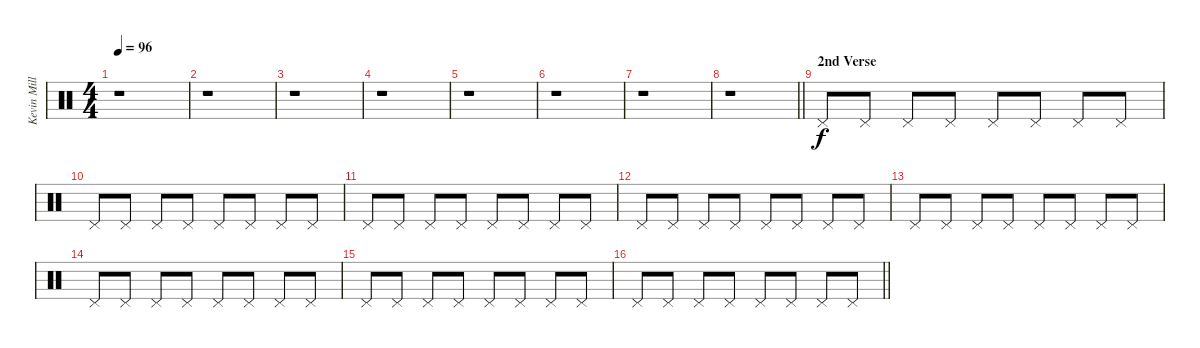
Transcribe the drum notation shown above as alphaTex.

\track ("Kevin Miller (Drums)" "Kevin Mill") {instrument percussion}
\staff {score}
\articulation defaults
\ts (4 4)
\tempo 96
\clef neutral
\ks c
r.1{dy f} |
r.1 |
r.1 |
r.1 |
r.1 |
r.1 |
r.1 |
\barLineRight lightlight
r.1 |
\section ("" "2nd Verse")
"Pedal Hi-Hat (hit)".8 "Pedal Hi-Hat (hit)".8 "Pedal Hi-Hat (hit)".8 "Pedal Hi-Hat (hit)".8 "Pedal Hi-Hat (hit)".8 "Pedal Hi-Hat (hit)".8 "Pedal Hi-Hat (hit)".8 "Pedal Hi-Hat (hit)".8 |
"Pedal Hi-Hat (hit)".8 "Pedal Hi-Hat (hit)".8 "Pedal Hi-Hat (hit)".8 "Pedal Hi-Hat (hit)".8 "Pedal Hi-Hat (hit)".8 "Pedal Hi-Hat (hit)".8 "Pedal Hi-Hat (hit)".8 "Pedal Hi-Hat (hit)".8 |
"Pedal Hi-Hat (hit)".8 "Pedal Hi-Hat (hit)".8 "Pedal Hi-Hat (hit)".8 "Pedal Hi-Hat (hit)".8 "Pedal Hi-Hat (hit)".8 "Pedal Hi-Hat (hit)".8 "Pedal Hi-Hat (hit)".8 "Pedal Hi-Hat (hit)".8 |
"Pedal Hi-Hat (hit)".8 "Pedal Hi-Hat (hit)".8 "Pedal Hi-Hat (hit)".8 "Pedal Hi-Hat (hit)".8 "Pedal Hi-Hat (hit)".8 "Pedal Hi-Hat (hit)".8 "Pedal Hi-Hat (hit)".8 "Pedal Hi-Hat (hit)".8 |
"Pedal Hi-Hat (hit)".8 "Pedal Hi-Hat (hit)".8 "Pedal Hi-Hat (hit)".8 "Pedal Hi-Hat (hit)".8 "Pedal Hi-Hat (hit)".8 "Pedal Hi-Hat (hit)".8 "Pedal Hi-Hat (hit)".8 "Pedal Hi-Hat (hit)".8 |
"Pedal Hi-Hat (hit)".8 "Pedal Hi-Hat (hit)".8 "Pedal Hi-Hat (hit)".8 "Pedal Hi-Hat (hit)".8 "Pedal Hi-Hat (hit)".8 "Pedal Hi-Hat (hit)".8 "Pedal Hi-Hat (hit)".8 "Pedal Hi-Hat (hit)".8 |
"Pedal Hi-Hat (hit)".8 "Pedal Hi-Hat (hit)".8 "Pedal Hi-Hat (hit)".8 "Pedal Hi-Hat (hit)".8 "Pedal Hi-Hat (hit)".8 "Pedal Hi-Hat (hit)".8 "Pedal Hi-Hat (hit)".8 "Pedal Hi-Hat (hit)".8 |
\barLineRight lightlight "Pedal Hi-Hat (hit)".8 "Pedal Hi-Hat (hit)".8 "Pedal Hi-Hat (hit)".8 "Pedal Hi-Hat (hit)".8 "Pedal Hi-Hat (hit)".8 "Pedal Hi-Hat (hit)".8 "Pedal Hi-Hat (hit)".8 "Pedal Hi-Hat (hit)".8
